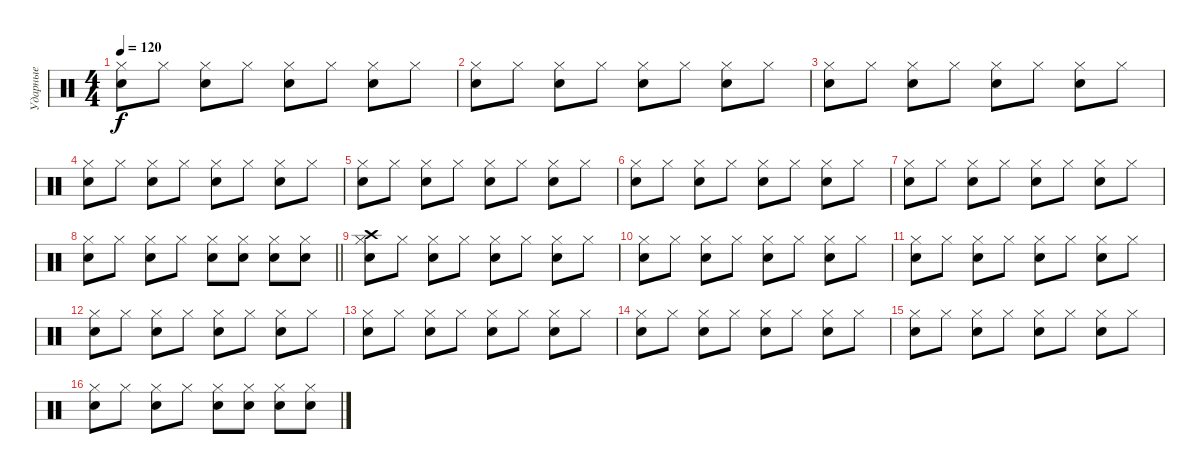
\track ("Ударные" "Ударные") {instrument percussion}
\staff {score}
\articulation defaults
\ts (4 4)
\tempo 120
\clef neutral
\ks c
("Hi-Hat (closed)" "Snare (hit) 2").8{dy f} "Hi-Hat (closed)".8 ("Hi-Hat (closed)" "Snare (hit) 2").8 "Hi-Hat (closed)".8 ("Hi-Hat (closed)" "Snare (hit) 2").8 "Hi-Hat (closed)".8 ("Hi-Hat (closed)" "Snare (hit) 2").8 "Hi-Hat (closed)".8 |
("Hi-Hat (closed)" "Snare (hit) 2").8 "Hi-Hat (closed)".8 ("Hi-Hat (closed)" "Snare (hit) 2").8 "Hi-Hat (closed)".8 ("Hi-Hat (closed)" "Snare (hit) 2").8 "Hi-Hat (closed)".8 ("Hi-Hat (closed)" "Snare (hit) 2").8 "Hi-Hat (closed)".8 |
("Hi-Hat (closed)" "Snare (hit) 2").8 "Hi-Hat (closed)".8 ("Hi-Hat (closed)" "Snare (hit) 2").8 "Hi-Hat (closed)".8 ("Hi-Hat (closed)" "Snare (hit) 2").8 "Hi-Hat (closed)".8 ("Hi-Hat (closed)" "Snare (hit) 2").8 "Hi-Hat (closed)".8 |
("Hi-Hat (closed)" "Snare (hit) 2").8 "Hi-Hat (closed)".8 ("Hi-Hat (closed)" "Snare (hit) 2").8 "Hi-Hat (closed)".8 ("Hi-Hat (closed)" "Snare (hit) 2").8 "Hi-Hat (closed)".8 ("Hi-Hat (closed)" "Snare (hit) 2").8 "Hi-Hat (closed)".8 |
("Hi-Hat (closed)" "Snare (hit) 2").8 "Hi-Hat (closed)".8 ("Hi-Hat (closed)" "Snare (hit) 2").8 "Hi-Hat (closed)".8 ("Hi-Hat (closed)" "Snare (hit) 2").8 "Hi-Hat (closed)".8 ("Hi-Hat (closed)" "Snare (hit) 2").8 "Hi-Hat (closed)".8 |
("Hi-Hat (closed)" "Snare (hit) 2").8 "Hi-Hat (closed)".8 ("Hi-Hat (closed)" "Snare (hit) 2").8 "Hi-Hat (closed)".8 ("Hi-Hat (closed)" "Snare (hit) 2").8 "Hi-Hat (closed)".8 ("Hi-Hat (closed)" "Snare (hit) 2").8 "Hi-Hat (closed)".8 |
("Hi-Hat (closed)" "Snare (hit) 2").8 "Hi-Hat (closed)".8 ("Hi-Hat (closed)" "Snare (hit) 2").8 "Hi-Hat (closed)".8 ("Hi-Hat (closed)" "Snare (hit) 2").8 "Hi-Hat (closed)".8 ("Hi-Hat (closed)" "Snare (hit) 2").8 "Hi-Hat (closed)".8 |
\barLineRight lightlight
("Hi-Hat (closed)" "Snare (hit) 2").8 "Hi-Hat (closed)".8 ("Hi-Hat (closed)" "Snare (hit) 2").8 "Hi-Hat (closed)".8 ("Hi-Hat (closed)" "Snare (hit) 2").8 ("Hi-Hat (closed)" "Snare (hit) 2").8 ("Hi-Hat (closed)" "Snare (hit) 2").8 ("Hi-Hat (closed)" "Snare (hit) 2").8 |
("Hi-Hat (closed)" "Crash high (hit)" "Snare (hit) 2").8 "Hi-Hat (closed)".8 ("Hi-Hat (closed)" "Snare (hit) 2").8 "Hi-Hat (closed)".8 ("Hi-Hat (closed)" "Snare (hit) 2").8 "Hi-Hat (closed)".8 ("Hi-Hat (closed)" "Snare (hit) 2").8 "Hi-Hat (closed)".8 |
("Hi-Hat (closed)" "Snare (hit) 2").8 "Hi-Hat (closed)".8 ("Hi-Hat (closed)" "Snare (hit) 2").8 "Hi-Hat (closed)".8 ("Hi-Hat (closed)" "Snare (hit) 2").8 "Hi-Hat (closed)".8 ("Hi-Hat (closed)" "Snare (hit) 2").8 "Hi-Hat (closed)".8 |
("Hi-Hat (closed)" "Snare (hit) 2").8 "Hi-Hat (closed)".8 ("Hi-Hat (closed)" "Snare (hit) 2").8 "Hi-Hat (closed)".8 ("Hi-Hat (closed)" "Snare (hit) 2").8 "Hi-Hat (closed)".8 ("Hi-Hat (closed)" "Snare (hit) 2").8 "Hi-Hat (closed)".8 |
("Hi-Hat (closed)" "Snare (hit) 2").8 "Hi-Hat (closed)".8 ("Hi-Hat (closed)" "Snare (hit) 2").8 "Hi-Hat (closed)".8 ("Hi-Hat (closed)" "Snare (hit) 2").8 "Hi-Hat (closed)".8 ("Hi-Hat (closed)" "Snare (hit) 2").8 "Hi-Hat (closed)".8 |
("Hi-Hat (closed)" "Snare (hit) 2").8 "Hi-Hat (closed)".8 ("Hi-Hat (closed)" "Snare (hit) 2").8 "Hi-Hat (closed)".8 ("Hi-Hat (closed)" "Snare (hit) 2").8 "Hi-Hat (closed)".8 ("Hi-Hat (closed)" "Snare (hit) 2").8 "Hi-Hat (closed)".8 |
("Hi-Hat (closed)" "Snare (hit) 2").8 "Hi-Hat (closed)".8 ("Hi-Hat (closed)" "Snare (hit) 2").8 "Hi-Hat (closed)".8 ("Hi-Hat (closed)" "Snare (hit) 2").8 "Hi-Hat (closed)".8 ("Hi-Hat (closed)" "Snare (hit) 2").8 "Hi-Hat (closed)".8 |
("Hi-Hat (closed)" "Snare (hit) 2").8 "Hi-Hat (closed)".8 ("Hi-Hat (closed)" "Snare (hit) 2").8 "Hi-Hat (closed)".8 ("Hi-Hat (closed)" "Snare (hit) 2").8 "Hi-Hat (closed)".8 ("Hi-Hat (closed)" "Snare (hit) 2").8 "Hi-Hat (closed)".8 |
("Hi-Hat (closed)" "Snare (hit) 2").8 "Hi-Hat (closed)".8 ("Hi-Hat (closed)" "Snare (hit) 2").8 "Hi-Hat (closed)".8 ("Hi-Hat (closed)" "Snare (hit) 2").8 ("Hi-Hat (closed)" "Snare (hit) 2").8 ("Hi-Hat (closed)" "Snare (hit) 2").8 ("Hi-Hat (closed)" "Snare (hit) 2").8
